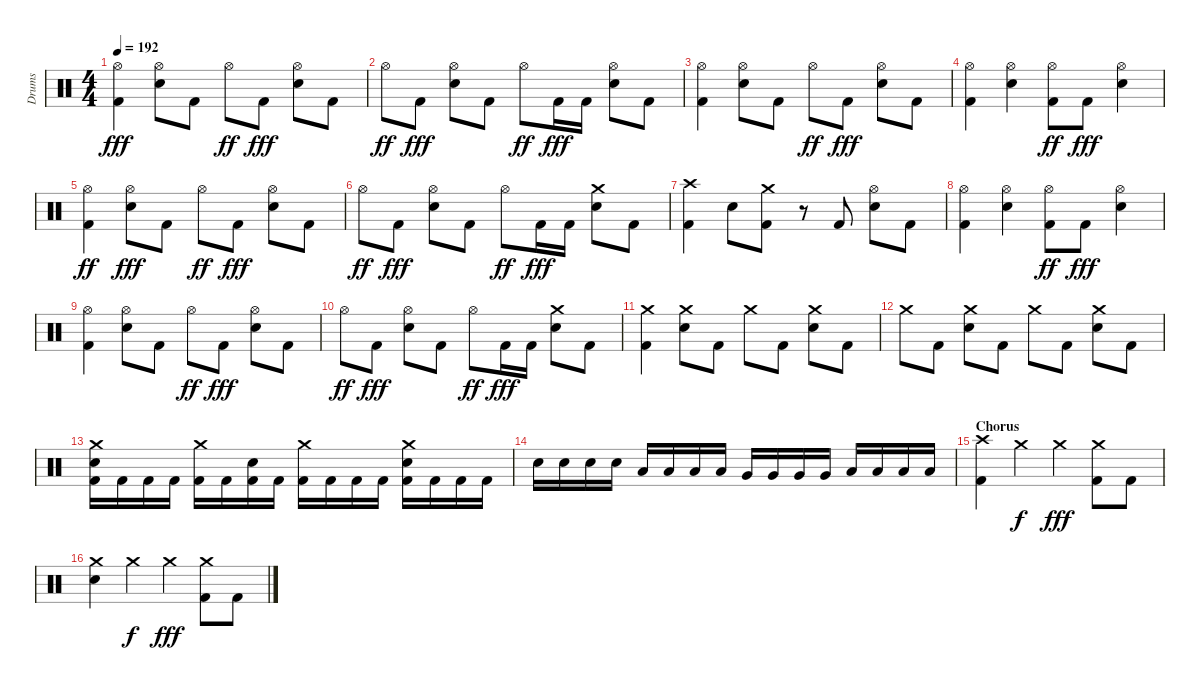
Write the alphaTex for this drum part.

\track ("Drums" "Drums") {instrument percussion}
\staff {score}
\articulation defaults
\ts (4 4)
\tempo 192
\clef neutral
\ks aminor
("Kick (hit) 2" "Hi-Hat (open)").4{dy fff} ("Hi-Hat (open)" "Snare (hit) 2").8 "Kick (hit) 2".8 "Hi-Hat (open)".8{dy ff} "Kick (hit) 2".8{dy fff} ("Snare (hit) 2" "Hi-Hat (open)").8 "Kick (hit) 2".8 |
"Hi-Hat (open)".8{dy ff} "Kick (hit) 2".8{dy fff} ("Hi-Hat (open)" "Snare (hit) 2").8 "Kick (hit) 2".8 "Hi-Hat (open)".8{dy ff} "Kick (hit) 2".16{dy fff} "Kick (hit) 2".16 ("Snare (hit) 2" "Hi-Hat (open)").8 "Kick (hit) 2".8 |
("Hi-Hat (open)" "Kick (hit) 2").4 ("Hi-Hat (open)" "Snare (hit) 2").8 "Kick (hit) 2".8 "Hi-Hat (open)".8{dy ff} "Kick (hit) 2".8{dy fff} ("Hi-Hat (open)" "Snare (hit) 2").8 "Kick (hit) 2".8 |
("Hi-Hat (open)" "Kick (hit) 2").4 ("Hi-Hat (open)" "Snare (hit) 2").4 ("Kick (hit) 2" "Hi-Hat (open)").8{dy ff} "Kick (hit) 2".8{dy fff} ("Snare (hit) 2" "Hi-Hat (open)").4 |
("Hi-Hat (open)" "Kick (hit) 2").4{dy ff} ("Snare (hit) 2" "Hi-Hat (open)").8{dy fff} "Kick (hit) 2".8 "Hi-Hat (open)".8{dy ff} "Kick (hit) 2".8{dy fff} ("Snare (hit) 2" "Hi-Hat (open)").8 "Kick (hit) 2".8 |
"Hi-Hat (open)".8{dy ff} "Kick (hit) 2".8{dy fff} ("Snare (hit) 2" "Hi-Hat (open)").8 "Kick (hit) 2".8 "Hi-Hat (open)".8{dy ff} "Kick (hit) 2".16{dy fff} "Kick (hit) 2".16 ("Snare (hit) 2" "Crash medium (hit)").8 "Kick (hit) 2".8 |
("Crash high (hit)" "Kick (hit) 2").4 "Snare (hit) 2".8 ("Crash medium (hit)" "Kick (hit) 2").8 r.8 "Kick (hit) 2".8 ("Hi-Hat (open)" "Snare (hit) 2").8 "Kick (hit) 2".8 |
("Kick (hit) 2" "Hi-Hat (open)").4 ("Snare (hit) 2" "Hi-Hat (open)").4 ("Kick (hit) 2" "Hi-Hat (open)").8{dy ff} "Kick (hit) 2".8{dy fff} ("Snare (hit) 2" "Hi-Hat (open)").4 |
("Hi-Hat (open)" "Kick (hit) 2").4 ("Hi-Hat (open)" "Snare (hit) 2").8 "Kick (hit) 2".8 "Hi-Hat (open)".8{dy ff} "Kick (hit) 2".8{dy fff} ("Hi-Hat (open)" "Snare (hit) 2").8 "Kick (hit) 2".8 |
"Hi-Hat (open)".8{dy ff} "Kick (hit) 2".8{dy fff} ("Hi-Hat (open)" "Snare (hit) 2").8 "Kick (hit) 2".8 "Hi-Hat (open)".8{dy ff} "Kick (hit) 2".16{dy fff} "Kick (hit) 2".16 ("Crash medium (hit)" "Snare (hit) 2").8 "Kick (hit) 2".8 |
("Kick (hit) 2" "Crash medium (hit)").4 ("Crash medium (hit)" "Snare (hit) 2").8 "Kick (hit) 2".8 "Crash medium (hit)".8 "Kick (hit) 2".8 ("Crash medium (hit)" "Snare (hit) 2").8 "Kick (hit) 2".8 |
"Crash medium (hit)".8 "Kick (hit) 2".8 ("Crash medium (hit)" "Snare (hit) 2").8 "Kick (hit) 2".8 "Crash medium (hit)".8 "Kick (hit) 2".8 ("Crash medium (hit)" "Snare (hit) 2").8 "Kick (hit) 2".8 |
("Snare (hit) 2" "Kick (hit) 2" "Crash medium (hit)").16 "Kick (hit) 2".16 "Kick (hit) 2".16 "Kick (hit) 2".16 ("Kick (hit) 2" "Crash medium (hit)").16 "Kick (hit) 2".16 ("Kick (hit) 2" "Snare (hit) 2").16 "Kick (hit) 2".16 ("Crash medium (hit)" "Kick (hit) 2").16 "Kick (hit) 2".16 "Kick (hit) 2".16 "Kick (hit) 2".16 ("Kick (hit) 2" "Snare (hit) 2" "Crash medium (hit)").16 "Kick (hit) 2".16 "Kick (hit) 2".16 "Kick (hit) 2".16 |
"Snare (hit) 2".16 "Snare (hit) 2".16 "Snare (hit) 2".16 "Snare (hit) 2".16 "Low Tom (hit)".16 "Low Tom (hit)".16 "Low Tom (hit)".16 "Low Tom (hit)".16 "Very Low Tom (hit)".16 "Very Low Tom (hit)".16 "Very Low Tom (hit)".16 "Very Low Tom (hit)".16 "Low Floor Tom (hit)".16 "Low Floor Tom (hit)".16 "Low Floor Tom (hit)".16 "Low Floor Tom (hit)".16 |
\section ("" "Chorus")
("Crash high (hit)" "Kick (hit) 2").4 "Crash medium (hit)".4{dy f} "Crash medium (hit)".4{dy fff} ("Crash medium (hit)" "Kick (hit) 2").8 "Kick (hit) 2".8 |
("Crash medium (hit)" "Snare (hit) 2").4 "Crash medium (hit)".4{dy f} "Crash medium (hit)".4{dy fff} ("Crash medium (hit)" "Kick (hit) 2").8 "Kick (hit) 2".8
